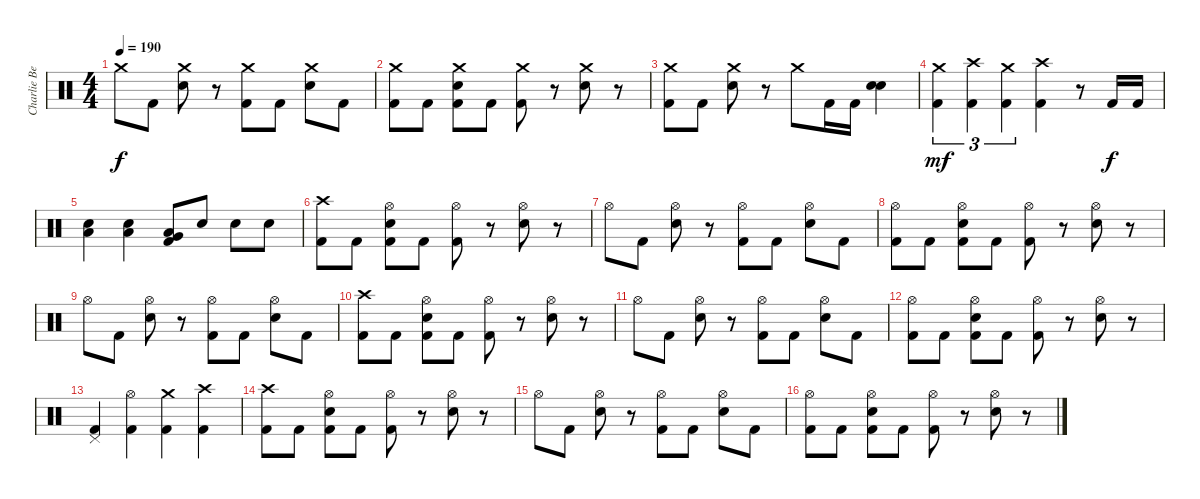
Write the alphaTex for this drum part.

\track ("Charlie Benante" "Charlie Be") {instrument percussion}
\staff {score}
\articulation defaults
\ts (4 4)
\tempo 190
\clef neutral
\ks c "Crash medium (hit)".8{dy f} "Kick (hit) 2".8
("Snare (hit) 2" "Crash medium (hit)").8 r.8 ("Kick (hit) 2" "Crash medium (hit)").8 "Kick (hit) 2".8 ("Snare (hit) 2" "Crash medium (hit)").8 "Kick (hit) 2".8 |
("Kick (hit) 2" "Crash medium (hit)").8 "Kick (hit) 2".8 ("Kick (hit) 2" "Crash medium (hit)" "Snare (hit) 2").8 "Kick (hit) 2".8 ("Kick (hit) 2" "Crash medium (hit)").8 r.8 ("Snare (hit) 2" "Crash medium (hit)").8 r.8 |
("Kick (hit) 2" "Crash medium (hit)").8 "Kick (hit) 2".8 ("Snare (hit) 2" "Crash medium (hit)").8 r.8 "Crash medium (hit)".8 "Kick (hit) 2".16 "Kick (hit) 2".16 ("Snare (hit) 2" "Snare (hit) 2").4{bd 480} |
("Kick (hit) 2" "Crash medium (hit)").4{tu (3 2) dy mf} ("Kick (hit) 2" "Crash high (hit)").4{tu (3 2)} ("Kick (hit) 2" "Crash medium (hit)").4{tu (3 2)} ("Kick (hit) 2" "Crash high (hit)").4 r.8 "Kick (hit) 2".16{dy f} "Kick (hit) 2".16 |
("Snare (hit) 2" "Low Floor Tom (hit)").4 ("Snare (hit) 2" "Low Floor Tom (hit)").4 ("Kick (hit) 2" "Very Low Tom (hit)" "Low Floor Tom (hit)").8 "Snare (hit) 2".8 "Snare (hit) 2".8 "Snare (hit) 2".8 |
("Kick (hit) 2" "Crash high (hit)").8 "Kick (hit) 2".8 ("Kick (hit) 2" "Hi-Hat (open)" "Snare (hit) 2").8 "Kick (hit) 2".8 ("Kick (hit) 2" "Hi-Hat (open)").8 r.8 ("Snare (hit) 2" "Hi-Hat (open)").8 r.8 |
"Hi-Hat (open)".8 "Kick (hit) 2".8 ("Snare (hit) 2" "Hi-Hat (open)").8 r.8 ("Kick (hit) 2" "Hi-Hat (open)").8 "Kick (hit) 2".8 ("Snare (hit) 2" "Hi-Hat (open)").8 "Kick (hit) 2".8 |
("Kick (hit) 2" "Hi-Hat (open)").8 "Kick (hit) 2".8 ("Kick (hit) 2" "Hi-Hat (open)" "Snare (hit) 2").8 "Kick (hit) 2".8 ("Kick (hit) 2" "Hi-Hat (open)").8 r.8 ("Snare (hit) 2" "Hi-Hat (open)").8 r.8 |
"Hi-Hat (open)".8 "Kick (hit) 2".8 ("Snare (hit) 2" "Hi-Hat (open)").8 r.8 ("Kick (hit) 2" "Hi-Hat (open)").8 "Kick (hit) 2".8 ("Snare (hit) 2" "Hi-Hat (open)").8 "Kick (hit) 2".8 |
("Kick (hit) 2" "Crash high (hit)").8 "Kick (hit) 2".8 ("Kick (hit) 2" "Hi-Hat (open)" "Snare (hit) 2").8 "Kick (hit) 2".8 ("Kick (hit) 2" "Hi-Hat (open)").8 r.8 ("Snare (hit) 2" "Hi-Hat (open)").8 r.8 |
"Hi-Hat (open)".8 "Kick (hit) 2".8 ("Snare (hit) 2" "Hi-Hat (open)").8 r.8 ("Kick (hit) 2" "Hi-Hat (open)").8 "Kick (hit) 2".8 ("Snare (hit) 2" "Hi-Hat (open)").8 "Kick (hit) 2".8 |
("Kick (hit) 2" "Hi-Hat (open)").8 "Kick (hit) 2".8 ("Kick (hit) 2" "Hi-Hat (open)" "Snare (hit) 2").8 "Kick (hit) 2".8 ("Kick (hit) 2" "Hi-Hat (open)").8 r.8 ("Snare (hit) 2" "Hi-Hat (open)").8 r.8 |
("Kick (hit) 2" "Pedal Hi-Hat (hit)").4 ("Kick (hit) 2" "Hi-Hat (open)").4 ("Kick (hit) 2" "Crash medium (hit)").4 ("Kick (hit) 2" "Crash high (hit)").4 |
("Kick (hit) 2" "Crash high (hit)").8 "Kick (hit) 2".8 ("Kick (hit) 2" "Hi-Hat (open)" "Snare (hit) 2").8 "Kick (hit) 2".8 ("Kick (hit) 2" "Hi-Hat (open)").8 r.8 ("Snare (hit) 2" "Hi-Hat (open)").8 r.8 |
"Hi-Hat (open)".8 "Kick (hit) 2".8 ("Snare (hit) 2" "Hi-Hat (open)").8 r.8 ("Kick (hit) 2" "Hi-Hat (open)").8 "Kick (hit) 2".8 ("Snare (hit) 2" "Hi-Hat (open)").8 "Kick (hit) 2".8 |
("Kick (hit) 2" "Hi-Hat (open)").8 "Kick (hit) 2".8 ("Kick (hit) 2" "Hi-Hat (open)" "Snare (hit) 2").8 "Kick (hit) 2".8 ("Kick (hit) 2" "Hi-Hat (open)").8 r.8 ("Snare (hit) 2" "Hi-Hat (open)").8 r.8
